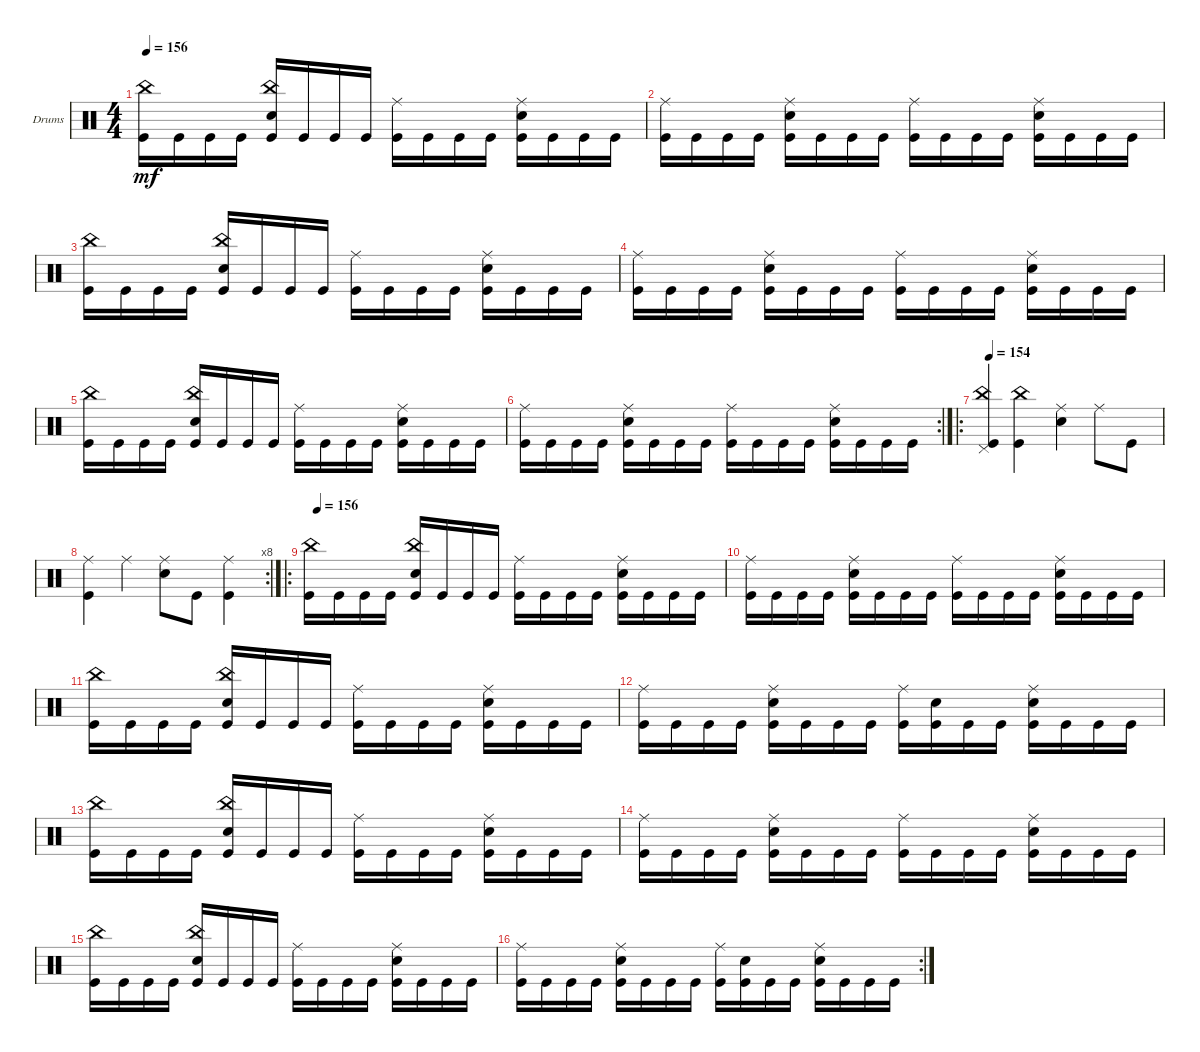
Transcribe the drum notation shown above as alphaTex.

\bracketExtendMode groupsimilarinstruments
\firstSystemTrackNameOrientation horizontal
\otherSystemsTrackNameOrientation horizontal
\track ("Drumkit" "Drums") {instrument percussion}
\staff {score}
\articulation defaults
\ts (4 4)
\tempo 156
\clef neutral
\ks c
("Kick (hit)" "China (hit)").16{dy mf} "Kick (hit)".16 "Kick (hit)".16 "Kick (hit)".16 ("Kick (hit)" "Snare (hit) 2" "China (hit)").16 "Kick (hit)".16 "Kick (hit)".16 "Kick (hit)".16 ("Kick (hit)" "Ride (middle)").16 "Kick (hit)".16 "Kick (hit)".16 "Kick (hit)".16 ("Kick (hit)" "Ride (middle)" "Snare (hit) 2").16 "Kick (hit)".16 "Kick (hit)".16 "Kick (hit)".16 |
("Kick (hit)" "Ride (middle)").16 "Kick (hit)".16 "Kick (hit)".16 "Kick (hit)".16 ("Kick (hit)" "Ride (middle)" "Snare (hit) 2").16 "Kick (hit)".16 "Kick (hit)".16 "Kick (hit)".16 ("Kick (hit)" "Ride (middle)").16 "Kick (hit)".16 "Kick (hit)".16 "Kick (hit)".16 ("Kick (hit)" "Ride (middle)" "Snare (hit) 2").16 "Kick (hit)".16 "Kick (hit)".16 "Kick (hit)".16 |
("Kick (hit)" "China (hit)").16 "Kick (hit)".16 "Kick (hit)".16 "Kick (hit)".16 ("Kick (hit)" "Snare (hit) 2" "China (hit)").16 "Kick (hit)".16 "Kick (hit)".16 "Kick (hit)".16 ("Kick (hit)" "Ride (middle)").16 "Kick (hit)".16 "Kick (hit)".16 "Kick (hit)".16 ("Kick (hit)" "Ride (middle)" "Snare (hit) 2").16 "Kick (hit)".16 "Kick (hit)".16 "Kick (hit)".16 |
("Kick (hit)" "Ride (middle)").16 "Kick (hit)".16 "Kick (hit)".16 "Kick (hit)".16 ("Kick (hit)" "Ride (middle)" "Snare (hit) 2").16 "Kick (hit)".16 "Kick (hit)".16 "Kick (hit)".16 ("Kick (hit)" "Ride (middle)").16 "Kick (hit)".16 "Kick (hit)".16 "Kick (hit)".16 ("Kick (hit)" "Ride (middle)" "Snare (hit) 2").16 "Kick (hit)".16 "Kick (hit)".16 "Kick (hit)".16 |
("Kick (hit)" "China (hit)").16 "Kick (hit)".16 "Kick (hit)".16 "Kick (hit)".16 ("Kick (hit)" "Snare (hit) 2" "China (hit)").16 "Kick (hit)".16 "Kick (hit)".16 "Kick (hit)".16 ("Kick (hit)" "Ride (middle)").16 "Kick (hit)".16 "Kick (hit)".16 "Kick (hit)".16 ("Kick (hit)" "Ride (middle)" "Snare (hit) 2").16 "Kick (hit)".16 "Kick (hit)".16 "Kick (hit)".16 |
\rc 2
("Kick (hit)" "Ride (middle)").16 "Kick (hit)".16 "Kick (hit)".16 "Kick (hit)".16 ("Kick (hit)" "Ride (middle)" "Snare (hit) 2").16 "Kick (hit)".16 "Kick (hit)".16 "Kick (hit)".16 ("Kick (hit)" "Ride (middle)").16 "Kick (hit)".16 "Kick (hit)".16 "Kick (hit)".16 ("Kick (hit)" "Ride (middle)" "Snare (hit) 2").16 "Kick (hit)".16 "Kick (hit)".16 "Kick (hit)".16 |
\ro
\tempo (154 0.01875)
("Kick (hit)" "China (hit)" "Pedal Hi-Hat (hit)").4 ("Kick (hit)" "China (hit)").4 ("Snare (hit) 2" "Ride (middle)").4 "Ride (middle)".8 "Kick (hit)".8 |
\rc 8
("Kick (hit)" "Ride (middle)").4 "Ride (middle)".4 ("Snare (hit) 2" "Ride (middle)").8 "Kick (hit)".8 ("Kick (hit)" "Ride (middle)").4 |
\ro
\tempo (156 0.0125)
("Kick (hit)" "China (hit)").16 "Kick (hit)".16 "Kick (hit)".16 "Kick (hit)".16 ("Kick (hit)" "Snare (hit) 2" "China (hit)").16 "Kick (hit)".16 "Kick (hit)".16 "Kick (hit)".16 ("Kick (hit)" "Ride (middle)").16 "Kick (hit)".16 "Kick (hit)".16 "Kick (hit)".16 ("Kick (hit)" "Ride (middle)" "Snare (hit) 2").16 "Kick (hit)".16 "Kick (hit)".16 "Kick (hit)".16 |
("Kick (hit)" "Ride (middle)").16 "Kick (hit)".16 "Kick (hit)".16 "Kick (hit)".16 ("Kick (hit)" "Ride (middle)" "Snare (hit) 2").16 "Kick (hit)".16 "Kick (hit)".16 "Kick (hit)".16 ("Kick (hit)" "Ride (middle)").16 "Kick (hit)".16 "Kick (hit)".16 "Kick (hit)".16 ("Kick (hit)" "Ride (middle)" "Snare (hit) 2").16 "Kick (hit)".16 "Kick (hit)".16 "Kick (hit)".16 |
("Kick (hit)" "China (hit)").16 "Kick (hit)".16 "Kick (hit)".16 "Kick (hit)".16 ("Kick (hit)" "Snare (hit) 2" "China (hit)").16 "Kick (hit)".16 "Kick (hit)".16 "Kick (hit)".16 ("Kick (hit)" "Ride (middle)").16 "Kick (hit)".16 "Kick (hit)".16 "Kick (hit)".16 ("Kick (hit)" "Ride (middle)" "Snare (hit) 2").16 "Kick (hit)".16 "Kick (hit)".16 "Kick (hit)".16 |
("Kick (hit)" "Ride (middle)").16 "Kick (hit)".16 "Kick (hit)".16 "Kick (hit)".16 ("Kick (hit)" "Ride (middle)" "Snare (hit) 2").16 "Kick (hit)".16 "Kick (hit)".16 "Kick (hit)".16 ("Kick (hit)" "Ride (middle)").16 ("Kick (hit)" "Snare (hit) 2").16 "Kick (hit)".16 "Kick (hit)".16 ("Kick (hit)" "Ride (middle)" "Snare (hit) 2").16 "Kick (hit)".16 "Kick (hit)".16 "Kick (hit)".16 |
("Kick (hit)" "China (hit)").16 "Kick (hit)".16 "Kick (hit)".16 "Kick (hit)".16 ("Kick (hit)" "Snare (hit) 2" "China (hit)").16 "Kick (hit)".16 "Kick (hit)".16 "Kick (hit)".16 ("Kick (hit)" "Ride (middle)").16 "Kick (hit)".16 "Kick (hit)".16 "Kick (hit)".16 ("Kick (hit)" "Ride (middle)" "Snare (hit) 2").16 "Kick (hit)".16 "Kick (hit)".16 "Kick (hit)".16 |
("Kick (hit)" "Ride (middle)").16 "Kick (hit)".16 "Kick (hit)".16 "Kick (hit)".16 ("Kick (hit)" "Ride (middle)" "Snare (hit) 2").16 "Kick (hit)".16 "Kick (hit)".16 "Kick (hit)".16 ("Kick (hit)" "Ride (middle)").16 "Kick (hit)".16 "Kick (hit)".16 "Kick (hit)".16 ("Kick (hit)" "Ride (middle)" "Snare (hit) 2").16 "Kick (hit)".16 "Kick (hit)".16 "Kick (hit)".16 |
("Kick (hit)" "China (hit)").16 "Kick (hit)".16 "Kick (hit)".16 "Kick (hit)".16 ("Kick (hit)" "Snare (hit) 2" "China (hit)").16 "Kick (hit)".16 "Kick (hit)".16 "Kick (hit)".16 ("Kick (hit)" "Ride (middle)").16 "Kick (hit)".16 "Kick (hit)".16 "Kick (hit)".16 ("Kick (hit)" "Ride (middle)" "Snare (hit) 2").16 "Kick (hit)".16 "Kick (hit)".16 "Kick (hit)".16 |
\rc 2
("Kick (hit)" "Ride (middle)").16 "Kick (hit)".16 "Kick (hit)".16 "Kick (hit)".16 ("Kick (hit)" "Ride (middle)" "Snare (hit) 2").16 "Kick (hit)".16 "Kick (hit)".16 "Kick (hit)".16 ("Kick (hit)" "Ride (middle)").16 ("Kick (hit)" "Snare (hit) 2").16 "Kick (hit)".16 "Kick (hit)".16 ("Kick (hit)" "Ride (middle)" "Snare (hit) 2").16 "Kick (hit)".16 "Kick (hit)".16 "Kick (hit)".16
